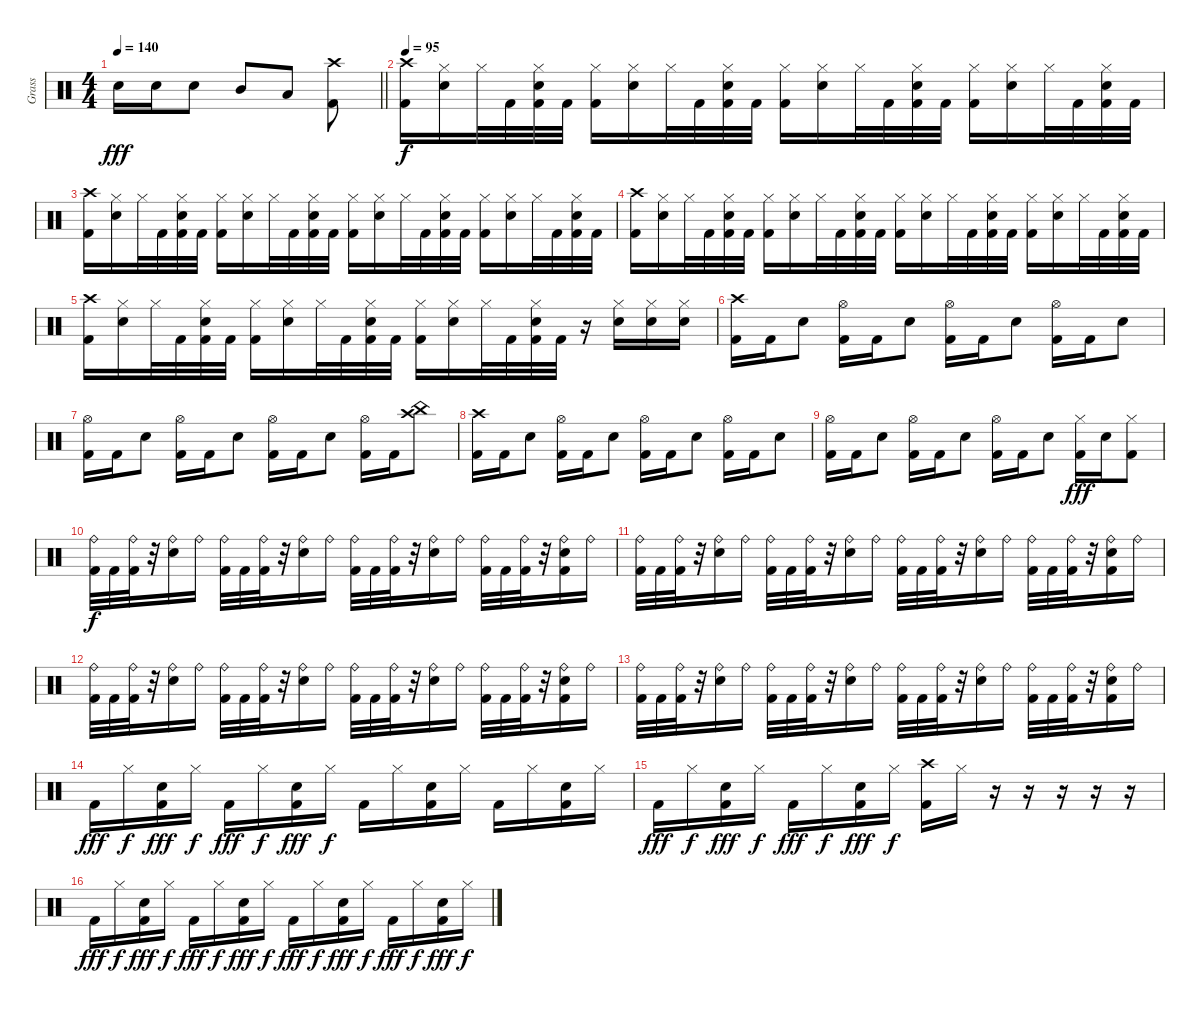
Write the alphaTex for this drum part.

\track ("Grass" "Grass") {instrument percussion}
\staff {score}
\articulation defaults
\ts (4 4)
\tempo 140
\clef neutral
\barLineRight lightlight
\ks c "Electric Snare (hit)".16{dy fff} "Electric Snare (hit)".16 "Electric Snare (hit)".8 "Mid Tom (hit)".8 "Low Tom (hit)".8
("Kick (hit) 2" "Crash high (hit)").8 |
\tempo 95
("Kick (hit) 2" "Crash high (hit)").16{dy f} ("Electric Snare (hit)" "Hi-Hat (closed)").16 "Hi-Hat (closed)".32 "Kick (hit) 2".32 ("Kick (hit) 2" "Electric Snare (hit)" "Hi-Hat (closed)").32 "Kick (hit) 2".32 ("Kick (hit) 2" "Hi-Hat (closed)").16 ("Electric Snare (hit)" "Hi-Hat (closed)").16 "Hi-Hat (closed)".32 "Kick (hit) 2".32 ("Kick (hit) 2" "Electric Snare (hit)" "Hi-Hat (closed)").32 "Kick (hit) 2".32 ("Kick (hit) 2" "Hi-Hat (closed)").16 ("Electric Snare (hit)" "Hi-Hat (closed)").16 "Hi-Hat (closed)".32 "Kick (hit) 2".32 ("Kick (hit) 2" "Electric Snare (hit)" "Hi-Hat (closed)").32 "Kick (hit) 2".32 ("Kick (hit) 2" "Hi-Hat (closed)").16 ("Electric Snare (hit)" "Hi-Hat (closed)").16 "Hi-Hat (closed)".32 "Kick (hit) 2".32 ("Kick (hit) 2" "Electric Snare (hit)" "Hi-Hat (closed)").32 "Kick (hit) 2".32 |
("Kick (hit) 2" "Crash high (hit)").16 ("Electric Snare (hit)" "Hi-Hat (closed)").16 "Hi-Hat (closed)".32 "Kick (hit) 2".32 ("Kick (hit) 2" "Electric Snare (hit)" "Hi-Hat (closed)").32 "Kick (hit) 2".32 ("Kick (hit) 2" "Hi-Hat (closed)").16 ("Electric Snare (hit)" "Hi-Hat (closed)").16 "Hi-Hat (closed)".32 "Kick (hit) 2".32 ("Kick (hit) 2" "Electric Snare (hit)" "Hi-Hat (closed)").32 "Kick (hit) 2".32 ("Kick (hit) 2" "Hi-Hat (closed)").16 ("Electric Snare (hit)" "Hi-Hat (closed)").16 "Hi-Hat (closed)".32 "Kick (hit) 2".32 ("Kick (hit) 2" "Electric Snare (hit)" "Hi-Hat (closed)").32 "Kick (hit) 2".32 ("Kick (hit) 2" "Hi-Hat (closed)").16 ("Electric Snare (hit)" "Hi-Hat (closed)").16 "Hi-Hat (closed)".32 "Kick (hit) 2".32 ("Kick (hit) 2" "Electric Snare (hit)" "Hi-Hat (closed)").32 "Kick (hit) 2".32 |
("Kick (hit) 2" "Crash high (hit)").16 ("Electric Snare (hit)" "Hi-Hat (closed)").16 "Hi-Hat (closed)".32 "Kick (hit) 2".32 ("Kick (hit) 2" "Electric Snare (hit)" "Hi-Hat (closed)").32 "Kick (hit) 2".32 ("Kick (hit) 2" "Hi-Hat (closed)").16 ("Electric Snare (hit)" "Hi-Hat (closed)").16 "Hi-Hat (closed)".32 "Kick (hit) 2".32 ("Kick (hit) 2" "Electric Snare (hit)" "Hi-Hat (closed)").32 "Kick (hit) 2".32 ("Kick (hit) 2" "Hi-Hat (closed)").16 ("Electric Snare (hit)" "Hi-Hat (closed)").16 "Hi-Hat (closed)".32 "Kick (hit) 2".32 ("Kick (hit) 2" "Electric Snare (hit)" "Hi-Hat (closed)").32 "Kick (hit) 2".32 ("Kick (hit) 2" "Hi-Hat (closed)").16 ("Electric Snare (hit)" "Hi-Hat (closed)").16 "Hi-Hat (closed)".32 "Kick (hit) 2".32 ("Kick (hit) 2" "Electric Snare (hit)" "Hi-Hat (closed)").32 "Kick (hit) 2".32 |
("Kick (hit) 2" "Crash high (hit)").16 ("Electric Snare (hit)" "Hi-Hat (closed)").16 "Hi-Hat (closed)".32 "Kick (hit) 2".32 ("Kick (hit) 2" "Electric Snare (hit)" "Hi-Hat (closed)").32 "Kick (hit) 2".32 ("Kick (hit) 2" "Hi-Hat (closed)").16 ("Electric Snare (hit)" "Hi-Hat (closed)").16 "Hi-Hat (closed)".32 "Kick (hit) 2".32 ("Kick (hit) 2" "Electric Snare (hit)" "Hi-Hat (closed)").32 "Kick (hit) 2".32 ("Kick (hit) 2" "Hi-Hat (closed)").16 ("Electric Snare (hit)" "Hi-Hat (closed)").16 "Hi-Hat (closed)".32 "Kick (hit) 2".32 ("Kick (hit) 2" "Electric Snare (hit)" "Hi-Hat (closed)").32 "Kick (hit) 2".32 r.16 ("Electric Snare (hit)" "Hi-Hat (closed)").16 ("Electric Snare (hit)" "Hi-Hat (closed)").16 ("Electric Snare (hit)" "Hi-Hat (closed)").16 |
("Kick (hit) 2" "Crash high (hit)").16 "Kick (hit) 2".16 "Electric Snare (hit)".8 ("Kick (hit) 2" "Hi-Hat (open)").16 "Kick (hit) 2".16 "Electric Snare (hit)".8 ("Kick (hit) 2" "Hi-Hat (open)").16 "Kick (hit) 2".16 "Electric Snare (hit)".8 ("Kick (hit) 2" "Hi-Hat (open)").16 "Kick (hit) 2".16 "Electric Snare (hit)".8 |
("Kick (hit) 2" "Hi-Hat (open)").16 "Kick (hit) 2".16 "Electric Snare (hit)".8 ("Kick (hit) 2" "Hi-Hat (open)").16 "Kick (hit) 2".16 "Electric Snare (hit)".8 ("Kick (hit) 2" "Hi-Hat (open)").16 "Kick (hit) 2".16 "Electric Snare (hit)".8 ("Kick (hit) 2" "Hi-Hat (open)").16 "Kick (hit) 2".16 ("Crash high (hit)" "China (hit)").8 |
("Kick (hit) 2" "Crash high (hit)").16 "Kick (hit) 2".16 "Electric Snare (hit)".8 ("Kick (hit) 2" "Hi-Hat (open)").16 "Kick (hit) 2".16 "Electric Snare (hit)".8 ("Kick (hit) 2" "Hi-Hat (open)").16 "Kick (hit) 2".16 "Electric Snare (hit)".8 ("Kick (hit) 2" "Hi-Hat (open)").16 "Kick (hit) 2".16 "Electric Snare (hit)".8 |
("Kick (hit) 2" "Hi-Hat (open)").16 "Kick (hit) 2".16 "Electric Snare (hit)".8 ("Kick (hit) 2" "Hi-Hat (open)").16 "Kick (hit) 2".16 "Electric Snare (hit)".8 ("Kick (hit) 2" "Hi-Hat (open)").16 "Kick (hit) 2".16 "Electric Snare (hit)".8 ("Kick (hit) 2" "Hi-Hat (closed)").16{dy fff} "Electric Snare (hit)".16 ("Kick (hit) 2" "Hi-Hat (closed)").8 |
("Kick (hit) 2" "Ride (bell)").32{dy f} "Kick (hit) 2".32 ("Kick (hit) 2" "Ride (bell)").32 r.32 ("Electric Snare (hit)" "Ride (bell)").16 "Ride (bell)".16 ("Kick (hit) 2" "Ride (bell)").32 "Kick (hit) 2".32 ("Kick (hit) 2" "Ride (bell)").32 r.32 ("Electric Snare (hit)" "Ride (bell)").16 "Ride (bell)".16 ("Kick (hit) 2" "Ride (bell)").32 "Kick (hit) 2".32 ("Kick (hit) 2" "Ride (bell)").32 r.32 ("Electric Snare (hit)" "Ride (bell)").16 "Ride (bell)".16 ("Kick (hit) 2" "Ride (bell)").32 "Kick (hit) 2".32 ("Kick (hit) 2" "Ride (bell)").32 r.32 ("Kick (hit) 2" "Electric Snare (hit)" "Ride (bell)").16 "Ride (bell)".16 |
("Kick (hit) 2" "Ride (bell)").32 "Kick (hit) 2".32 ("Kick (hit) 2" "Ride (bell)").32 r.32 ("Electric Snare (hit)" "Ride (bell)").16 "Ride (bell)".16 ("Kick (hit) 2" "Ride (bell)").32 "Kick (hit) 2".32 ("Kick (hit) 2" "Ride (bell)").32 r.32 ("Electric Snare (hit)" "Ride (bell)").16 "Ride (bell)".16 ("Kick (hit) 2" "Ride (bell)").32 "Kick (hit) 2".32 ("Kick (hit) 2" "Ride (bell)").32 r.32 ("Electric Snare (hit)" "Ride (bell)").16 "Ride (bell)".16 ("Kick (hit) 2" "Ride (bell)").32 "Kick (hit) 2".32 ("Kick (hit) 2" "Ride (bell)").32 r.32 ("Kick (hit) 2" "Electric Snare (hit)" "Ride (bell)").16 "Ride (bell)".16 |
("Kick (hit) 2" "Ride (bell)").32 "Kick (hit) 2".32 ("Kick (hit) 2" "Ride (bell)").32 r.32 ("Electric Snare (hit)" "Ride (bell)").16 "Ride (bell)".16 ("Kick (hit) 2" "Ride (bell)").32 "Kick (hit) 2".32 ("Kick (hit) 2" "Ride (bell)").32 r.32 ("Electric Snare (hit)" "Ride (bell)").16 "Ride (bell)".16 ("Kick (hit) 2" "Ride (bell)").32 "Kick (hit) 2".32 ("Kick (hit) 2" "Ride (bell)").32 r.32 ("Electric Snare (hit)" "Ride (bell)").16 "Ride (bell)".16 ("Kick (hit) 2" "Ride (bell)").32 "Kick (hit) 2".32 ("Kick (hit) 2" "Ride (bell)").32 r.32 ("Kick (hit) 2" "Electric Snare (hit)" "Ride (bell)").16 "Ride (bell)".16 |
("Kick (hit) 2" "Ride (bell)").32 "Kick (hit) 2".32 ("Kick (hit) 2" "Ride (bell)").32 r.32 ("Electric Snare (hit)" "Ride (bell)").16 "Ride (bell)".16 ("Kick (hit) 2" "Ride (bell)").32 "Kick (hit) 2".32 ("Kick (hit) 2" "Ride (bell)").32 r.32 ("Electric Snare (hit)" "Ride (bell)").16 "Ride (bell)".16 ("Kick (hit) 2" "Ride (bell)").32 "Kick (hit) 2".32 ("Kick (hit) 2" "Ride (bell)").32 r.32 ("Electric Snare (hit)" "Ride (bell)").16 "Ride (bell)".16 ("Kick (hit) 2" "Ride (bell)").32 "Kick (hit) 2".32 ("Kick (hit) 2" "Ride (bell)").32 r.32 ("Kick (hit) 2" "Electric Snare (hit)" "Ride (bell)").16 "Ride (bell)".16 |
"Kick (hit) 2".16{dy fff} "Hi-Hat (closed)".16{dy f} ("Kick (hit) 2" "Electric Snare (hit)").16{dy fff} "Hi-Hat (closed)".16{dy f} "Kick (hit) 2".16{dy fff} "Hi-Hat (closed)".16{dy f} ("Kick (hit) 2" "Electric Snare (hit)").16{dy fff} "Hi-Hat (closed)".16{dy f} "Kick (hit) 2".16 "Hi-Hat (closed)".16 ("Kick (hit) 2" "Electric Snare (hit)").16 "Hi-Hat (closed)".16 "Kick (hit) 2".16 "Hi-Hat (closed)".16 ("Kick (hit) 2" "Electric Snare (hit)").16 "Hi-Hat (closed)".16 |
"Kick (hit) 2".16{dy fff} "Hi-Hat (closed)".16{dy f} ("Kick (hit) 2" "Electric Snare (hit)").16{dy fff} "Hi-Hat (closed)".16{dy f} "Kick (hit) 2".16{dy fff} "Hi-Hat (closed)".16{dy f} ("Kick (hit) 2" "Electric Snare (hit)").16{dy fff} "Hi-Hat (closed)".16{dy f} ("Kick (hit) 2" "Crash high (hit)").16 "Hi-Hat (closed)".16 r.16 r.16 r.16 r.16 r.16 |
"Kick (hit) 2".16{dy fff} "Hi-Hat (closed)".16{dy f} ("Kick (hit) 2" "Electric Snare (hit)").16{dy fff} "Hi-Hat (closed)".16{dy f} "Kick (hit) 2".16{dy fff} "Hi-Hat (closed)".16{dy f} ("Kick (hit) 2" "Electric Snare (hit)").16{dy fff} "Hi-Hat (closed)".16{dy f} "Kick (hit) 2".16{dy fff} "Hi-Hat (closed)".16{dy f} ("Kick (hit) 2" "Electric Snare (hit)").16{dy fff} "Hi-Hat (closed)".16{dy f} "Kick (hit) 2".16{dy fff} "Hi-Hat (closed)".16{dy f} ("Kick (hit) 2" "Electric Snare (hit)").16{dy fff} "Hi-Hat (closed)".16{dy f}
